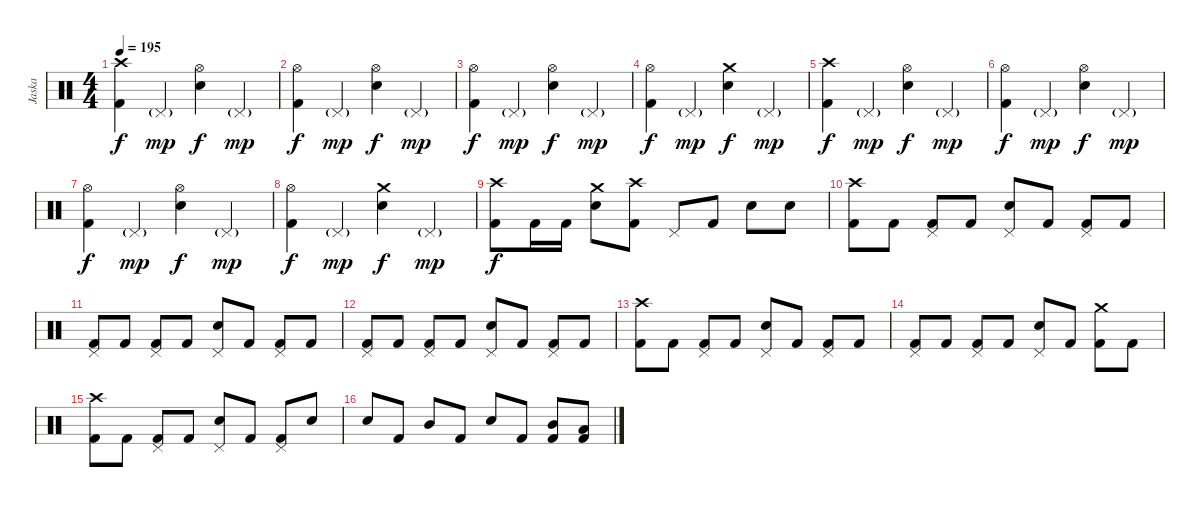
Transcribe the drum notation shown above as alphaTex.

\track ("Jaska" "Jaska") {instrument percussion}
\staff {score}
\articulation defaults
\ts (4 4)
\tempo 195
\clef neutral
\ks c
("Crash high (hit)" "Kick (hit) 2").4{dy f} "Pedal Hi-Hat (hit)"{g}.4{dy mp} ("Hi-Hat (open)" "Electric Snare (hit)").4{dy f} "Pedal Hi-Hat (hit)"{g}.4{dy mp} |
("Hi-Hat (open)" "Kick (hit) 2").4{dy f} "Pedal Hi-Hat (hit)"{g}.4{dy mp} ("Hi-Hat (open)" "Electric Snare (hit)").4{dy f} "Pedal Hi-Hat (hit)"{g}.4{dy mp} |
("Hi-Hat (open)" "Kick (hit) 2").4{dy f} "Pedal Hi-Hat (hit)"{g}.4{dy mp} ("Hi-Hat (open)" "Electric Snare (hit)").4{dy f} "Pedal Hi-Hat (hit)"{g}.4{dy mp} |
("Hi-Hat (open)" "Kick (hit) 2").4{dy f} "Pedal Hi-Hat (hit)"{g}.4{dy mp} ("Crash medium (hit)" "Electric Snare (hit)").4{dy f} "Pedal Hi-Hat (hit)"{g}.4{dy mp} |
("Crash high (hit)" "Kick (hit) 2").4{dy f} "Pedal Hi-Hat (hit)"{g}.4{dy mp} ("Hi-Hat (open)" "Electric Snare (hit)").4{dy f} "Pedal Hi-Hat (hit)"{g}.4{dy mp} |
("Hi-Hat (open)" "Kick (hit) 2").4{dy f} "Pedal Hi-Hat (hit)"{g}.4{dy mp} ("Hi-Hat (open)" "Electric Snare (hit)").4{dy f} "Pedal Hi-Hat (hit)"{g}.4{dy mp} |
("Hi-Hat (open)" "Kick (hit) 2").4{dy f} "Pedal Hi-Hat (hit)"{g}.4{dy mp} ("Hi-Hat (open)" "Electric Snare (hit)").4{dy f} "Pedal Hi-Hat (hit)"{g}.4{dy mp} |
("Hi-Hat (open)" "Kick (hit) 2").4{dy f} "Pedal Hi-Hat (hit)"{g}.4{dy mp} ("Crash medium (hit)" "Electric Snare (hit)").4{dy f} "Pedal Hi-Hat (hit)"{g}.4{dy mp} |
("Crash high (hit)" "Kick (hit) 2").8{dy f} "Kick (hit) 2".16 "Kick (hit) 2".16 ("Crash medium (hit)" "Electric Snare (hit)").8 ("Crash high (hit)" "Kick (hit) 2").8 "Pedal Hi-Hat (hit)".8 "Kick (hit) 2".8 "Electric Snare (hit)".8 "Electric Snare (hit)".8 |
("Crash high (hit)" "Kick (hit) 2").8 "Kick (hit) 2".8 ("Pedal Hi-Hat (hit)" "Kick (hit) 2").8 "Kick (hit) 2".8 ("Pedal Hi-Hat (hit)" "Electric Snare (hit)").8 "Kick (hit) 2".8 ("Pedal Hi-Hat (hit)" "Kick (hit) 2").8 "Kick (hit) 2".8 |
("Pedal Hi-Hat (hit)" "Kick (hit) 2").8 "Kick (hit) 2".8 ("Pedal Hi-Hat (hit)" "Kick (hit) 2").8 "Kick (hit) 2".8 ("Pedal Hi-Hat (hit)" "Electric Snare (hit)").8 "Kick (hit) 2".8 ("Pedal Hi-Hat (hit)" "Kick (hit) 2").8 "Kick (hit) 2".8 |
("Pedal Hi-Hat (hit)" "Kick (hit) 2").8 "Kick (hit) 2".8 ("Pedal Hi-Hat (hit)" "Kick (hit) 2").8 "Kick (hit) 2".8 ("Pedal Hi-Hat (hit)" "Electric Snare (hit)").8 "Kick (hit) 2".8 ("Pedal Hi-Hat (hit)" "Kick (hit) 2").8 "Kick (hit) 2".8 |
("Crash high (hit)" "Kick (hit) 2").8 "Kick (hit) 2".8 ("Pedal Hi-Hat (hit)" "Kick (hit) 2").8 "Kick (hit) 2".8 ("Pedal Hi-Hat (hit)" "Electric Snare (hit)").8 "Kick (hit) 2".8 ("Pedal Hi-Hat (hit)" "Kick (hit) 2").8 "Kick (hit) 2".8 |
("Pedal Hi-Hat (hit)" "Kick (hit) 2").8 "Kick (hit) 2".8 ("Pedal Hi-Hat (hit)" "Kick (hit) 2").8 "Kick (hit) 2".8 ("Pedal Hi-Hat (hit)" "Electric Snare (hit)").8 "Kick (hit) 2".8 ("Crash medium (hit)" "Kick (hit) 2").8 "Kick (hit) 2".8 |
("Crash high (hit)" "Kick (hit) 2").8 "Kick (hit) 2".8 ("Pedal Hi-Hat (hit)" "Kick (hit) 2").8 "Kick (hit) 2".8 ("Pedal Hi-Hat (hit)" "Electric Snare (hit)").8 "Kick (hit) 2".8 ("Pedal Hi-Hat (hit)" "Kick (hit) 2").8 "Electric Snare (hit)".8 |
"Electric Snare (hit)".8 "Kick (hit) 2".8 "Mid Tom (hit)".8 "Kick (hit) 2".8 "Electric Snare (hit)".8 "Kick (hit) 2".8 ("Mid Tom (hit)" "Kick (hit) 2").8 ("Low Tom (hit)" "Kick (hit) 2").8
